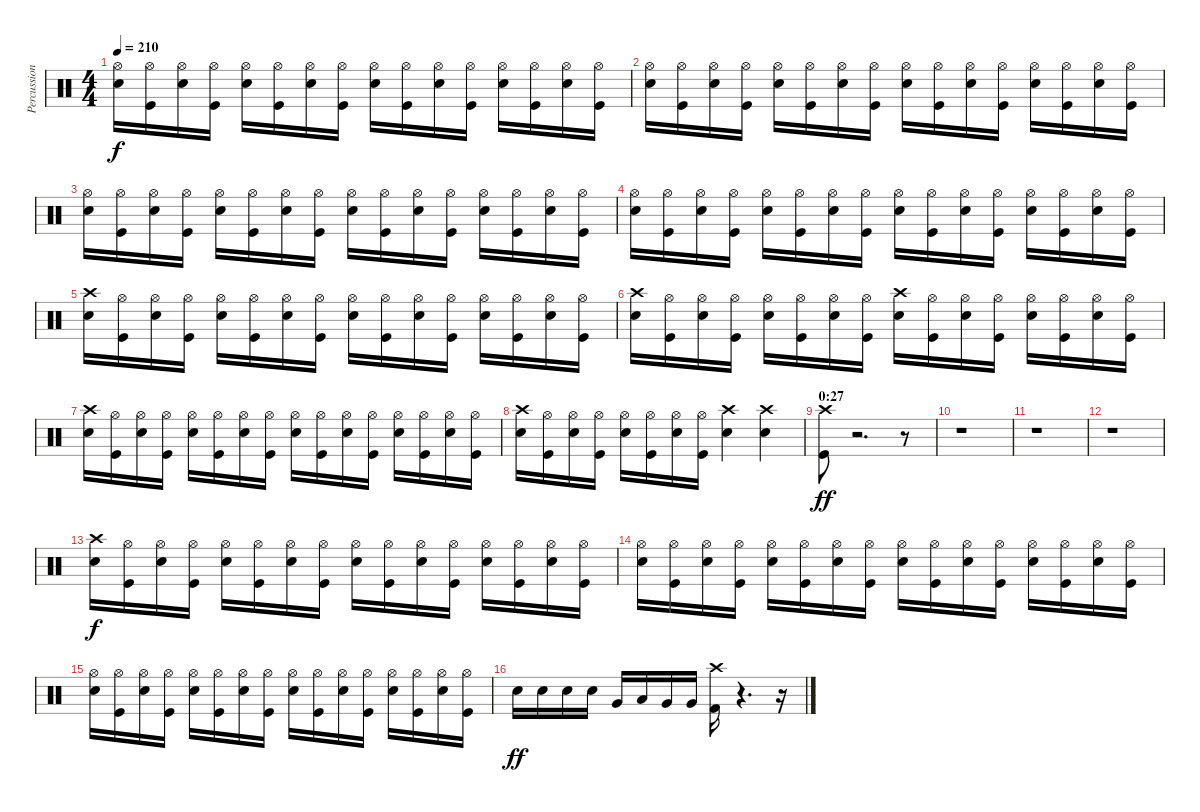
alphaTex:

\track ("Percussion" "Percussion") {instrument percussion}
\staff {score}
\articulation defaults
\ts (4 4)
\tempo 210
\clef neutral
\ks c
("Hi-Hat (open)" "Snare (hit) 2").16{dy f} ("Hi-Hat (open)" "Kick (hit)").16 ("Hi-Hat (open)" "Snare (hit) 2").16 ("Hi-Hat (open)" "Kick (hit)").16 ("Hi-Hat (open)" "Snare (hit) 2").16 ("Hi-Hat (open)" "Kick (hit)").16 ("Hi-Hat (open)" "Snare (hit) 2").16 ("Hi-Hat (open)" "Kick (hit)").16 ("Hi-Hat (open)" "Snare (hit) 2").16 ("Hi-Hat (open)" "Kick (hit)").16 ("Hi-Hat (open)" "Snare (hit) 2").16 ("Hi-Hat (open)" "Kick (hit)").16 ("Hi-Hat (open)" "Snare (hit) 2").16 ("Hi-Hat (open)" "Kick (hit)").16 ("Hi-Hat (open)" "Snare (hit) 2").16 ("Hi-Hat (open)" "Kick (hit)").16 |
("Hi-Hat (open)" "Snare (hit) 2").16 ("Hi-Hat (open)" "Kick (hit)").16 ("Hi-Hat (open)" "Snare (hit) 2").16 ("Hi-Hat (open)" "Kick (hit)").16 ("Hi-Hat (open)" "Snare (hit) 2").16 ("Hi-Hat (open)" "Kick (hit)").16 ("Hi-Hat (open)" "Snare (hit) 2").16 ("Hi-Hat (open)" "Kick (hit)").16 ("Hi-Hat (open)" "Snare (hit) 2").16 ("Hi-Hat (open)" "Kick (hit)").16 ("Hi-Hat (open)" "Snare (hit) 2").16 ("Hi-Hat (open)" "Kick (hit)").16 ("Hi-Hat (open)" "Snare (hit) 2").16 ("Hi-Hat (open)" "Kick (hit)").16 ("Hi-Hat (open)" "Snare (hit) 2").16 ("Hi-Hat (open)" "Kick (hit)").16 |
("Hi-Hat (open)" "Snare (hit) 2").16 ("Hi-Hat (open)" "Kick (hit)").16 ("Hi-Hat (open)" "Snare (hit) 2").16 ("Hi-Hat (open)" "Kick (hit)").16 ("Hi-Hat (open)" "Snare (hit) 2").16 ("Hi-Hat (open)" "Kick (hit)").16 ("Hi-Hat (open)" "Snare (hit) 2").16 ("Hi-Hat (open)" "Kick (hit)").16 ("Hi-Hat (open)" "Snare (hit) 2").16 ("Hi-Hat (open)" "Kick (hit)").16 ("Hi-Hat (open)" "Snare (hit) 2").16 ("Hi-Hat (open)" "Kick (hit)").16 ("Hi-Hat (open)" "Snare (hit) 2").16 ("Hi-Hat (open)" "Kick (hit)").16 ("Hi-Hat (open)" "Snare (hit) 2").16 ("Hi-Hat (open)" "Kick (hit)").16 |
("Hi-Hat (open)" "Snare (hit) 2").16 ("Hi-Hat (open)" "Kick (hit)").16 ("Hi-Hat (open)" "Snare (hit) 2").16 ("Hi-Hat (open)" "Kick (hit)").16 ("Hi-Hat (open)" "Snare (hit) 2").16 ("Hi-Hat (open)" "Kick (hit)").16 ("Hi-Hat (open)" "Snare (hit) 2").16 ("Hi-Hat (open)" "Kick (hit)").16 ("Hi-Hat (open)" "Snare (hit) 2").16 ("Hi-Hat (open)" "Kick (hit)").16 ("Hi-Hat (open)" "Snare (hit) 2").16 ("Hi-Hat (open)" "Kick (hit)").16 ("Hi-Hat (open)" "Snare (hit) 2").16 ("Hi-Hat (open)" "Kick (hit)").16 ("Hi-Hat (open)" "Snare (hit) 2").16 ("Hi-Hat (open)" "Kick (hit)").16 |
("Crash high (hit)" "Snare (hit) 2").16 ("Hi-Hat (open)" "Kick (hit)").16 ("Hi-Hat (open)" "Snare (hit) 2").16 ("Hi-Hat (open)" "Kick (hit)").16 ("Hi-Hat (open)" "Snare (hit) 2").16 ("Hi-Hat (open)" "Kick (hit)").16 ("Hi-Hat (open)" "Snare (hit) 2").16 ("Hi-Hat (open)" "Kick (hit)").16 ("Hi-Hat (open)" "Snare (hit) 2").16 ("Hi-Hat (open)" "Kick (hit)").16 ("Hi-Hat (open)" "Snare (hit) 2").16 ("Hi-Hat (open)" "Kick (hit)").16 ("Hi-Hat (open)" "Snare (hit) 2").16 ("Hi-Hat (open)" "Kick (hit)").16 ("Hi-Hat (open)" "Snare (hit) 2").16 ("Hi-Hat (open)" "Kick (hit)").16 |
("Crash high (hit)" "Snare (hit) 2").16 ("Hi-Hat (open)" "Kick (hit)").16 ("Hi-Hat (open)" "Snare (hit) 2").16 ("Hi-Hat (open)" "Kick (hit)").16 ("Hi-Hat (open)" "Snare (hit) 2").16 ("Hi-Hat (open)" "Kick (hit)").16 ("Hi-Hat (open)" "Snare (hit) 2").16 ("Hi-Hat (open)" "Kick (hit)").16 ("Crash high (hit)" "Snare (hit) 2").16 ("Hi-Hat (open)" "Kick (hit)").16 ("Hi-Hat (open)" "Snare (hit) 2").16 ("Hi-Hat (open)" "Kick (hit)").16 ("Hi-Hat (open)" "Snare (hit) 2").16 ("Hi-Hat (open)" "Kick (hit)").16 ("Hi-Hat (open)" "Snare (hit) 2").16 ("Hi-Hat (open)" "Kick (hit)").16 |
("Crash high (hit)" "Snare (hit) 2").16 ("Hi-Hat (open)" "Kick (hit)").16 ("Hi-Hat (open)" "Snare (hit) 2").16 ("Hi-Hat (open)" "Kick (hit)").16 ("Hi-Hat (open)" "Snare (hit) 2").16 ("Hi-Hat (open)" "Kick (hit)").16 ("Hi-Hat (open)" "Snare (hit) 2").16 ("Hi-Hat (open)" "Kick (hit)").16 ("Hi-Hat (open)" "Snare (hit) 2").16 ("Hi-Hat (open)" "Kick (hit)").16 ("Hi-Hat (open)" "Snare (hit) 2").16 ("Hi-Hat (open)" "Kick (hit)").16 ("Hi-Hat (open)" "Snare (hit) 2").16 ("Hi-Hat (open)" "Kick (hit)").16 ("Hi-Hat (open)" "Snare (hit) 2").16 ("Hi-Hat (open)" "Kick (hit)").16 |
("Crash high (hit)" "Snare (hit) 2").16 ("Hi-Hat (open)" "Kick (hit)").16 ("Hi-Hat (open)" "Snare (hit) 2").16 ("Hi-Hat (open)" "Kick (hit)").16 ("Hi-Hat (open)" "Snare (hit) 2").16 ("Hi-Hat (open)" "Kick (hit)").16 ("Hi-Hat (open)" "Snare (hit) 2").16 ("Hi-Hat (open)" "Kick (hit)").16 ("Snare (hit) 2" "Crash high (hit)").4 ("Snare (hit) 2" "Crash high (hit)").4 |
\section ("" "0:27")
("Kick (hit)" "Crash high (hit)").8{dy ff} r.2{d} r.8 |
r.1 |
r.1 |
r.1 |
("Crash high (hit)" "Snare (hit) 2").16{dy f} ("Hi-Hat (open)" "Kick (hit)").16 ("Hi-Hat (open)" "Snare (hit) 2").16 ("Hi-Hat (open)" "Kick (hit)").16 ("Hi-Hat (open)" "Snare (hit) 2").16 ("Hi-Hat (open)" "Kick (hit)").16 ("Hi-Hat (open)" "Snare (hit) 2").16 ("Hi-Hat (open)" "Kick (hit)").16 ("Hi-Hat (open)" "Snare (hit) 2").16 ("Hi-Hat (open)" "Kick (hit)").16 ("Hi-Hat (open)" "Snare (hit) 2").16 ("Hi-Hat (open)" "Kick (hit)").16 ("Hi-Hat (open)" "Snare (hit) 2").16 ("Hi-Hat (open)" "Kick (hit)").16 ("Hi-Hat (open)" "Snare (hit) 2").16 ("Hi-Hat (open)" "Kick (hit)").16 |
("Hi-Hat (open)" "Snare (hit) 2").16 ("Hi-Hat (open)" "Kick (hit)").16 ("Hi-Hat (open)" "Snare (hit) 2").16 ("Hi-Hat (open)" "Kick (hit)").16 ("Hi-Hat (open)" "Snare (hit) 2").16 ("Hi-Hat (open)" "Kick (hit)").16 ("Hi-Hat (open)" "Snare (hit) 2").16 ("Hi-Hat (open)" "Kick (hit)").16 ("Hi-Hat (open)" "Snare (hit) 2").16 ("Hi-Hat (open)" "Kick (hit)").16 ("Hi-Hat (open)" "Snare (hit) 2").16 ("Hi-Hat (open)" "Kick (hit)").16 ("Hi-Hat (open)" "Snare (hit) 2").16 ("Hi-Hat (open)" "Kick (hit)").16 ("Hi-Hat (open)" "Snare (hit) 2").16 ("Hi-Hat (open)" "Kick (hit)").16 |
("Hi-Hat (open)" "Snare (hit) 2").16 ("Hi-Hat (open)" "Kick (hit)").16 ("Hi-Hat (open)" "Snare (hit) 2").16 ("Hi-Hat (open)" "Kick (hit)").16 ("Hi-Hat (open)" "Snare (hit) 2").16 ("Hi-Hat (open)" "Kick (hit)").16 ("Hi-Hat (open)" "Snare (hit) 2").16 ("Hi-Hat (open)" "Kick (hit)").16 ("Hi-Hat (open)" "Snare (hit) 2").16 ("Hi-Hat (open)" "Kick (hit)").16 ("Hi-Hat (open)" "Snare (hit) 2").16 ("Hi-Hat (open)" "Kick (hit)").16 ("Hi-Hat (open)" "Snare (hit) 2").16 ("Hi-Hat (open)" "Kick (hit)").16 ("Hi-Hat (open)" "Snare (hit) 2").16 ("Hi-Hat (open)" "Kick (hit)").16 |
"Snare (hit) 2".16{dy ff} "Snare (hit) 2".16 "Snare (hit) 2".16 "Snare (hit) 2".16 "Very Low Tom (hit)".16 "Low Tom (hit)".16 "Very Low Tom (hit)".16 "Very Low Tom (hit)".16 ("Kick (hit) 2" "Crash high (hit)").16 r.4{d} r.16
